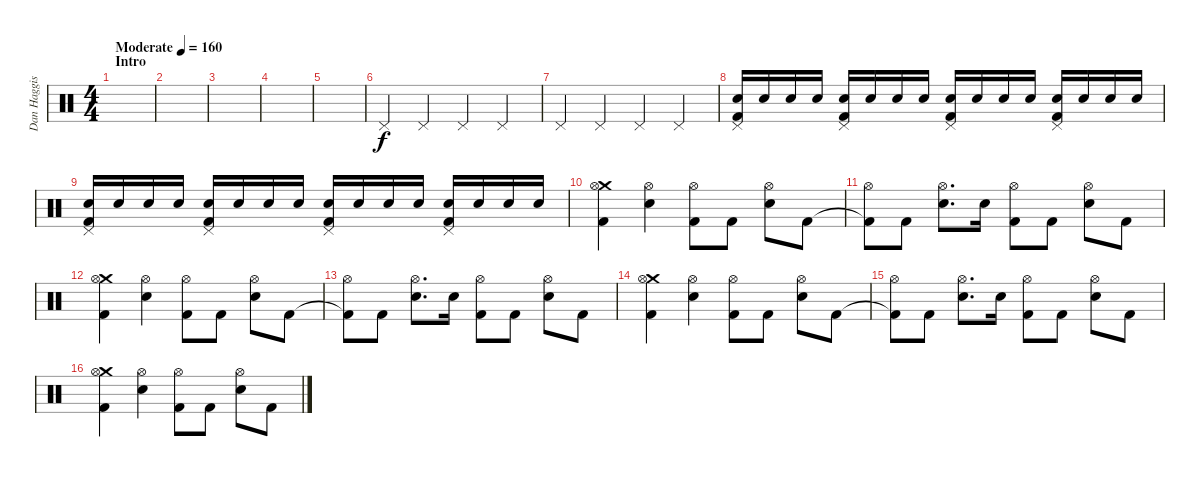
\track ("Dan Haggis" "Dan Haggis") {instrument percussion}
\staff {score}
\articulation defaults
\ts (4 4)
\section ("" "Intro")
\tempo (160 "Moderate")
\clef neutral
\ks c
|
|
|
|
|
"Pedal Hi-Hat (hit)".4 "Pedal Hi-Hat (hit)".4 "Pedal Hi-Hat (hit)".4 "Pedal Hi-Hat (hit)".4 |
"Pedal Hi-Hat (hit)".4 "Pedal Hi-Hat (hit)".4 "Pedal Hi-Hat (hit)".4 "Pedal Hi-Hat (hit)".4 |
("Pedal Hi-Hat (hit)" "Electric Snare (hit)" "Kick (hit) 2").16{volume 13} "Electric Snare (hit)".16 "Electric Snare (hit)".16 "Electric Snare (hit)".16 ("Pedal Hi-Hat (hit)" "Electric Snare (hit)" "Kick (hit) 2").16 "Electric Snare (hit)".16 "Electric Snare (hit)".16 "Electric Snare (hit)".16 ("Pedal Hi-Hat (hit)" "Electric Snare (hit)" "Kick (hit) 2").16 "Electric Snare (hit)".16 "Electric Snare (hit)".16 "Electric Snare (hit)".16 ("Pedal Hi-Hat (hit)" "Electric Snare (hit)" "Kick (hit) 2").16 "Electric Snare (hit)".16 "Electric Snare (hit)".16 "Electric Snare (hit)".16 |
("Pedal Hi-Hat (hit)" "Electric Snare (hit)" "Kick (hit) 2").16 "Electric Snare (hit)".16 "Electric Snare (hit)".16 "Electric Snare (hit)".16 ("Pedal Hi-Hat (hit)" "Electric Snare (hit)" "Kick (hit) 2").16 "Electric Snare (hit)".16 "Electric Snare (hit)".16 "Electric Snare (hit)".16 ("Pedal Hi-Hat (hit)" "Electric Snare (hit)" "Kick (hit) 2").16 "Electric Snare (hit)".16 "Electric Snare (hit)".16 "Electric Snare (hit)".16 ("Pedal Hi-Hat (hit)" "Electric Snare (hit)" "Kick (hit) 2").16 "Electric Snare (hit)".16 "Electric Snare (hit)".16 "Electric Snare (hit)".16 |
("Crash medium (hit)" "Hi-Hat (open)" "Kick (hit) 2").4 ("Hi-Hat (open)" "Electric Snare (hit)").4 ("Hi-Hat (open)" "Kick (hit) 2").8 "Kick (hit) 2".8 ("Hi-Hat (open)" "Electric Snare (hit)").8 "Kick (hit) 2".8 |
("Kick (hit) 2"{t} "Hi-Hat (open)").8 "Kick (hit) 2".8 ("Hi-Hat (open)" "Electric Snare (hit)").8{d} "Electric Snare (hit)".16 ("Hi-Hat (open)" "Kick (hit) 2").8 "Kick (hit) 2".8 ("Hi-Hat (open)" "Electric Snare (hit)").8 "Kick (hit) 2".8 |
("Crash medium (hit)" "Hi-Hat (open)" "Kick (hit) 2").4 ("Hi-Hat (open)" "Electric Snare (hit)").4 ("Hi-Hat (open)" "Kick (hit) 2").8 "Kick (hit) 2".8 ("Hi-Hat (open)" "Electric Snare (hit)").8 "Kick (hit) 2".8 |
("Kick (hit) 2"{t} "Hi-Hat (open)").8 "Kick (hit) 2".8 ("Hi-Hat (open)" "Electric Snare (hit)").8{d} "Electric Snare (hit)".16 ("Hi-Hat (open)" "Kick (hit) 2").8 "Kick (hit) 2".8 ("Hi-Hat (open)" "Electric Snare (hit)").8 "Kick (hit) 2".8 |
("Crash medium (hit)" "Hi-Hat (open)" "Kick (hit) 2").4 ("Hi-Hat (open)" "Electric Snare (hit)").4 ("Hi-Hat (open)" "Kick (hit) 2").8 "Kick (hit) 2".8 ("Hi-Hat (open)" "Electric Snare (hit)").8 "Kick (hit) 2".8 |
("Kick (hit) 2"{t} "Hi-Hat (open)").8 "Kick (hit) 2".8 ("Hi-Hat (open)" "Electric Snare (hit)").8{d} "Electric Snare (hit)".16 ("Hi-Hat (open)" "Kick (hit) 2").8 "Kick (hit) 2".8 ("Hi-Hat (open)" "Electric Snare (hit)").8 "Kick (hit) 2".8 |
("Crash medium (hit)" "Hi-Hat (open)" "Kick (hit) 2").4 ("Hi-Hat (open)" "Electric Snare (hit)").4 ("Hi-Hat (open)" "Kick (hit) 2").8 "Kick (hit) 2".8 ("Hi-Hat (open)" "Electric Snare (hit)").8 "Kick (hit) 2".8
